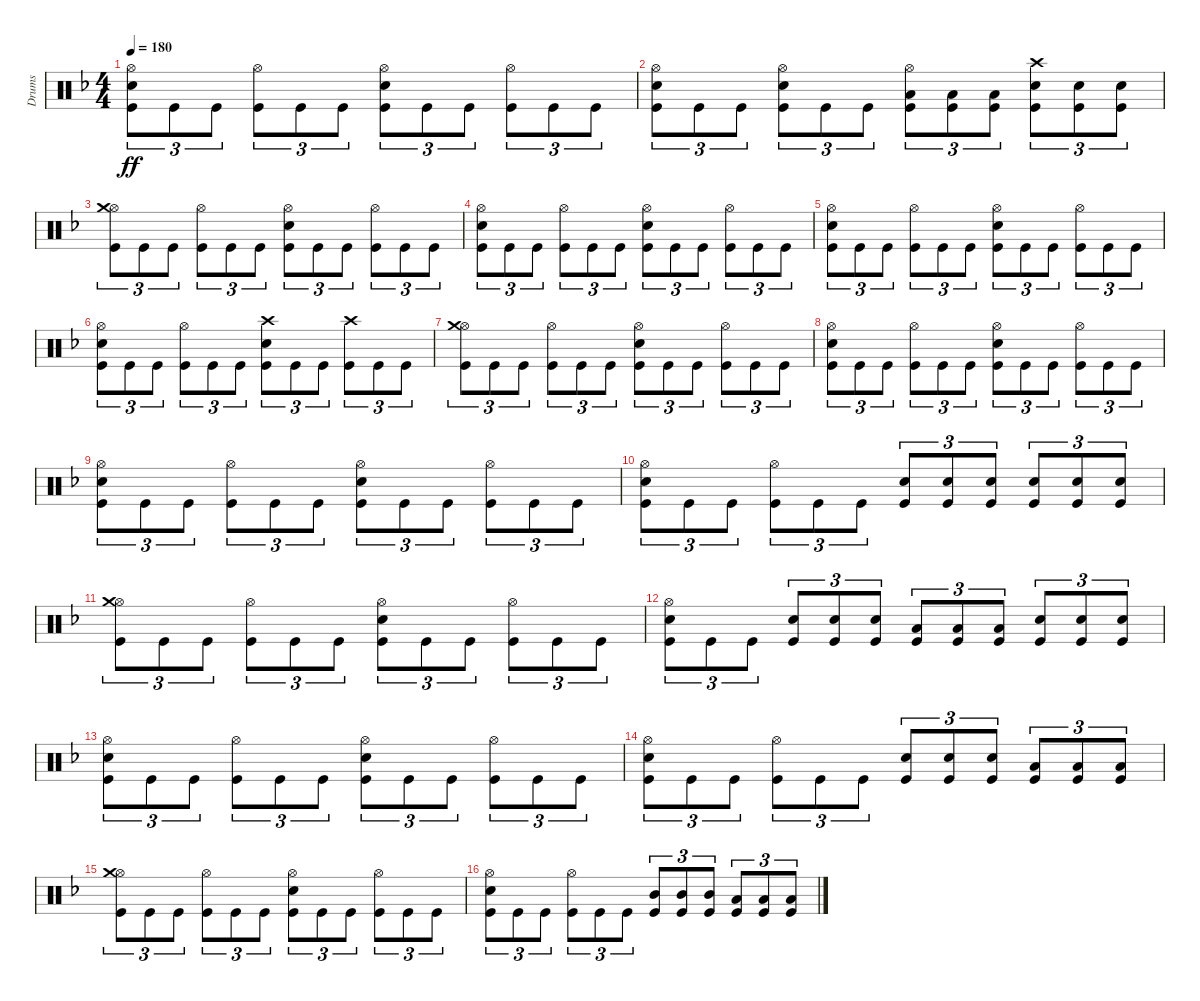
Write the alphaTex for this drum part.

\track ("Drums" "Drums") {instrument percussion}
\staff {score}
\articulation defaults
\ts (4 4)
\tempo 180
\clef neutral
\ks dminor
("Hi-Hat (open)" "Snare (hit) 2" "Kick (hit)").8{tu (3 2) dy ff} "Kick (hit)".8{tu (3 2)} "Kick (hit)".8{tu (3 2)} ("Hi-Hat (open)" "Kick (hit)").8{tu (3 2)} "Kick (hit)".8{tu (3 2)} "Kick (hit)".8{tu (3 2)} ("Hi-Hat (open)" "Snare (hit) 2" "Kick (hit)").8{tu (3 2)} "Kick (hit)".8{tu (3 2)} "Kick (hit)".8{tu (3 2)} ("Hi-Hat (open)" "Kick (hit)").8{tu (3 2)} "Kick (hit)".8{tu (3 2)} "Kick (hit)".8{tu (3 2)} |
("Hi-Hat (open)" "Snare (hit) 2" "Kick (hit)").8{tu (3 2)} "Kick (hit)".8{tu (3 2)} "Kick (hit)".8{tu (3 2)} ("Hi-Hat (open)" "Snare (hit) 2" "Kick (hit)").8{tu (3 2)} "Kick (hit)".8{tu (3 2)} "Kick (hit)".8{tu (3 2)} ("Hi-Hat (open)" "Low Tom (hit)" "Kick (hit)").8{tu (3 2)} ("Low Tom (hit)" "Kick (hit)").8{tu (3 2)} ("Low Tom (hit)" "Kick (hit)").8{tu (3 2)} ("Crash high (hit)" "Snare (hit) 2" "Kick (hit)").8{tu (3 2)} ("Snare (hit) 2" "Kick (hit)").8{tu (3 2)} ("Snare (hit) 2" "Kick (hit)").8{tu (3 2)} |
("Hi-Hat (open)" "Crash medium (hit)" "Kick (hit)").8{tu (3 2)} "Kick (hit)".8{tu (3 2)} "Kick (hit)".8{tu (3 2)} ("Hi-Hat (open)" "Kick (hit)").8{tu (3 2)} "Kick (hit)".8{tu (3 2)} "Kick (hit)".8{tu (3 2)} ("Hi-Hat (open)" "Snare (hit) 2" "Kick (hit)").8{tu (3 2)} "Kick (hit)".8{tu (3 2)} "Kick (hit)".8{tu (3 2)} ("Hi-Hat (open)" "Kick (hit)").8{tu (3 2)} "Kick (hit)".8{tu (3 2)} "Kick (hit)".8{tu (3 2)} |
("Hi-Hat (open)" "Snare (hit) 2" "Kick (hit)").8{tu (3 2)} "Kick (hit)".8{tu (3 2)} "Kick (hit)".8{tu (3 2)} ("Hi-Hat (open)" "Kick (hit)").8{tu (3 2)} "Kick (hit)".8{tu (3 2)} "Kick (hit)".8{tu (3 2)} ("Hi-Hat (open)" "Snare (hit) 2" "Kick (hit)").8{tu (3 2)} "Kick (hit)".8{tu (3 2)} "Kick (hit)".8{tu (3 2)} ("Hi-Hat (open)" "Kick (hit)").8{tu (3 2)} "Kick (hit)".8{tu (3 2)} "Kick (hit)".8{tu (3 2)} |
("Hi-Hat (open)" "Snare (hit) 2" "Kick (hit)").8{tu (3 2)} "Kick (hit)".8{tu (3 2)} "Kick (hit)".8{tu (3 2)} ("Hi-Hat (open)" "Kick (hit)").8{tu (3 2)} "Kick (hit)".8{tu (3 2)} "Kick (hit)".8{tu (3 2)} ("Hi-Hat (open)" "Snare (hit) 2" "Kick (hit)").8{tu (3 2)} "Kick (hit)".8{tu (3 2)} "Kick (hit)".8{tu (3 2)} ("Hi-Hat (open)" "Kick (hit)").8{tu (3 2)} "Kick (hit)".8{tu (3 2)} "Kick (hit)".8{tu (3 2)} |
("Hi-Hat (open)" "Snare (hit) 2" "Kick (hit)").8{tu (3 2)} "Kick (hit)".8{tu (3 2)} "Kick (hit)".8{tu (3 2)} ("Hi-Hat (open)" "Kick (hit)").8{tu (3 2)} "Kick (hit)".8{tu (3 2)} "Kick (hit)".8{tu (3 2)} ("Crash high (hit)" "Snare (hit) 2" "Kick (hit)").8{tu (3 2)} "Kick (hit)".8{tu (3 2)} "Kick (hit)".8{tu (3 2)} ("Crash high (hit)" "Kick (hit)").8{tu (3 2)} "Kick (hit)".8{tu (3 2)} "Kick (hit)".8{tu (3 2)} |
("Hi-Hat (open)" "Crash medium (hit)" "Kick (hit)").8{tu (3 2)} "Kick (hit)".8{tu (3 2)} "Kick (hit)".8{tu (3 2)} ("Hi-Hat (open)" "Kick (hit)").8{tu (3 2)} "Kick (hit)".8{tu (3 2)} "Kick (hit)".8{tu (3 2)} ("Hi-Hat (open)" "Snare (hit) 2" "Kick (hit)").8{tu (3 2)} "Kick (hit)".8{tu (3 2)} "Kick (hit)".8{tu (3 2)} ("Hi-Hat (open)" "Kick (hit)").8{tu (3 2)} "Kick (hit)".8{tu (3 2)} "Kick (hit)".8{tu (3 2)} |
("Hi-Hat (open)" "Snare (hit) 2" "Kick (hit)").8{tu (3 2)} "Kick (hit)".8{tu (3 2)} "Kick (hit)".8{tu (3 2)} ("Hi-Hat (open)" "Kick (hit)").8{tu (3 2)} "Kick (hit)".8{tu (3 2)} "Kick (hit)".8{tu (3 2)} ("Hi-Hat (open)" "Snare (hit) 2" "Kick (hit)").8{tu (3 2)} "Kick (hit)".8{tu (3 2)} "Kick (hit)".8{tu (3 2)} ("Hi-Hat (open)" "Kick (hit)").8{tu (3 2)} "Kick (hit)".8{tu (3 2)} "Kick (hit)".8{tu (3 2)} |
("Hi-Hat (open)" "Snare (hit) 2" "Kick (hit)").8{tu (3 2)} "Kick (hit)".8{tu (3 2)} "Kick (hit)".8{tu (3 2)} ("Hi-Hat (open)" "Kick (hit)").8{tu (3 2)} "Kick (hit)".8{tu (3 2)} "Kick (hit)".8{tu (3 2)} ("Hi-Hat (open)" "Snare (hit) 2" "Kick (hit)").8{tu (3 2)} "Kick (hit)".8{tu (3 2)} "Kick (hit)".8{tu (3 2)} ("Hi-Hat (open)" "Kick (hit)").8{tu (3 2)} "Kick (hit)".8{tu (3 2)} "Kick (hit)".8{tu (3 2)} |
("Hi-Hat (open)" "Snare (hit) 2" "Kick (hit)").8{tu (3 2)} "Kick (hit)".8{tu (3 2)} "Kick (hit)".8{tu (3 2)} ("Hi-Hat (open)" "Kick (hit)").8{tu (3 2)} "Kick (hit)".8{tu (3 2)} "Kick (hit)".8{tu (3 2)} ("Snare (hit) 2" "Kick (hit)").8{tu (3 2)} ("Snare (hit) 2" "Kick (hit)").8{tu (3 2)} ("Snare (hit) 2" "Kick (hit)").8{tu (3 2)} ("Snare (hit) 2" "Kick (hit)").8{tu (3 2)} ("Snare (hit) 2" "Kick (hit)").8{tu (3 2)} ("Snare (hit) 2" "Kick (hit)").8{tu (3 2)} |
("Hi-Hat (open)" "Crash medium (hit)" "Kick (hit)").8{tu (3 2)} "Kick (hit)".8{tu (3 2)} "Kick (hit)".8{tu (3 2)} ("Hi-Hat (open)" "Kick (hit)").8{tu (3 2)} "Kick (hit)".8{tu (3 2)} "Kick (hit)".8{tu (3 2)} ("Hi-Hat (open)" "Snare (hit) 2" "Kick (hit)").8{tu (3 2)} "Kick (hit)".8{tu (3 2)} "Kick (hit)".8{tu (3 2)} ("Hi-Hat (open)" "Kick (hit)").8{tu (3 2)} "Kick (hit)".8{tu (3 2)} "Kick (hit)".8{tu (3 2)} |
("Hi-Hat (open)" "Snare (hit) 2" "Kick (hit)").8{tu (3 2)} "Kick (hit)".8{tu (3 2)} "Kick (hit)".8{tu (3 2)} ("Snare (hit) 2" "Kick (hit)").8{tu (3 2)} ("Snare (hit) 2" "Kick (hit)").8{tu (3 2)} ("Snare (hit) 2" "Kick (hit)").8{tu (3 2)} ("Low Tom (hit)" "Kick (hit)").8{tu (3 2)} ("Low Tom (hit)" "Kick (hit)").8{tu (3 2)} ("Low Tom (hit)" "Kick (hit)").8{tu (3 2)} ("Snare (hit) 2" "Kick (hit)").8{tu (3 2)} ("Snare (hit) 2" "Kick (hit)").8{tu (3 2)} ("Snare (hit) 2" "Kick (hit)").8{tu (3 2)} |
("Hi-Hat (open)" "Snare (hit) 2" "Kick (hit)").8{tu (3 2)} "Kick (hit)".8{tu (3 2)} "Kick (hit)".8{tu (3 2)} ("Hi-Hat (open)" "Kick (hit)").8{tu (3 2)} "Kick (hit)".8{tu (3 2)} "Kick (hit)".8{tu (3 2)} ("Hi-Hat (open)" "Snare (hit) 2" "Kick (hit)").8{tu (3 2)} "Kick (hit)".8{tu (3 2)} "Kick (hit)".8{tu (3 2)} ("Hi-Hat (open)" "Kick (hit)").8{tu (3 2)} "Kick (hit)".8{tu (3 2)} "Kick (hit)".8{tu (3 2)} |
("Hi-Hat (open)" "Snare (hit) 2" "Kick (hit)").8{tu (3 2)} "Kick (hit)".8{tu (3 2)} "Kick (hit)".8{tu (3 2)} ("Hi-Hat (open)" "Kick (hit)").8{tu (3 2)} "Kick (hit)".8{tu (3 2)} "Kick (hit)".8{tu (3 2)} ("Snare (hit) 2" "Kick (hit)").8{tu (3 2)} ("Snare (hit) 2" "Kick (hit)").8{tu (3 2)} ("Snare (hit) 2" "Kick (hit)").8{tu (3 2)} ("Low Tom (hit)" "Kick (hit)").8{tu (3 2)} ("Low Tom (hit)" "Kick (hit)").8{tu (3 2)} ("Low Tom (hit)" "Kick (hit)").8{tu (3 2)} |
("Hi-Hat (open)" "Crash medium (hit)" "Kick (hit)").8{tu (3 2)} "Kick (hit)".8{tu (3 2)} "Kick (hit)".8{tu (3 2)} ("Hi-Hat (open)" "Kick (hit)").8{tu (3 2)} "Kick (hit)".8{tu (3 2)} "Kick (hit)".8{tu (3 2)} ("Hi-Hat (open)" "Snare (hit) 2" "Kick (hit)").8{tu (3 2)} "Kick (hit)".8{tu (3 2)} "Kick (hit)".8{tu (3 2)} ("Hi-Hat (open)" "Kick (hit)").8{tu (3 2)} "Kick (hit)".8{tu (3 2)} "Kick (hit)".8{tu (3 2)} |
("Hi-Hat (open)" "Snare (hit) 2" "Kick (hit)").8{tu (3 2)} "Kick (hit)".8{tu (3 2)} "Kick (hit)".8{tu (3 2)} ("Hi-Hat (open)" "Kick (hit)").8{tu (3 2)} "Kick (hit)".8{tu (3 2)} "Kick (hit)".8{tu (3 2)} ("Mid Tom (hit)" "Kick (hit)").8{tu (3 2)} ("Mid Tom (hit)" "Kick (hit)").8{tu (3 2)} ("Mid Tom (hit)" "Kick (hit)").8{tu (3 2)} ("Low Tom (hit)" "Kick (hit)").8{tu (3 2)} ("Low Tom (hit)" "Kick (hit)").8{tu (3 2)} ("Low Tom (hit)" "Kick (hit)").8{tu (3 2)}
